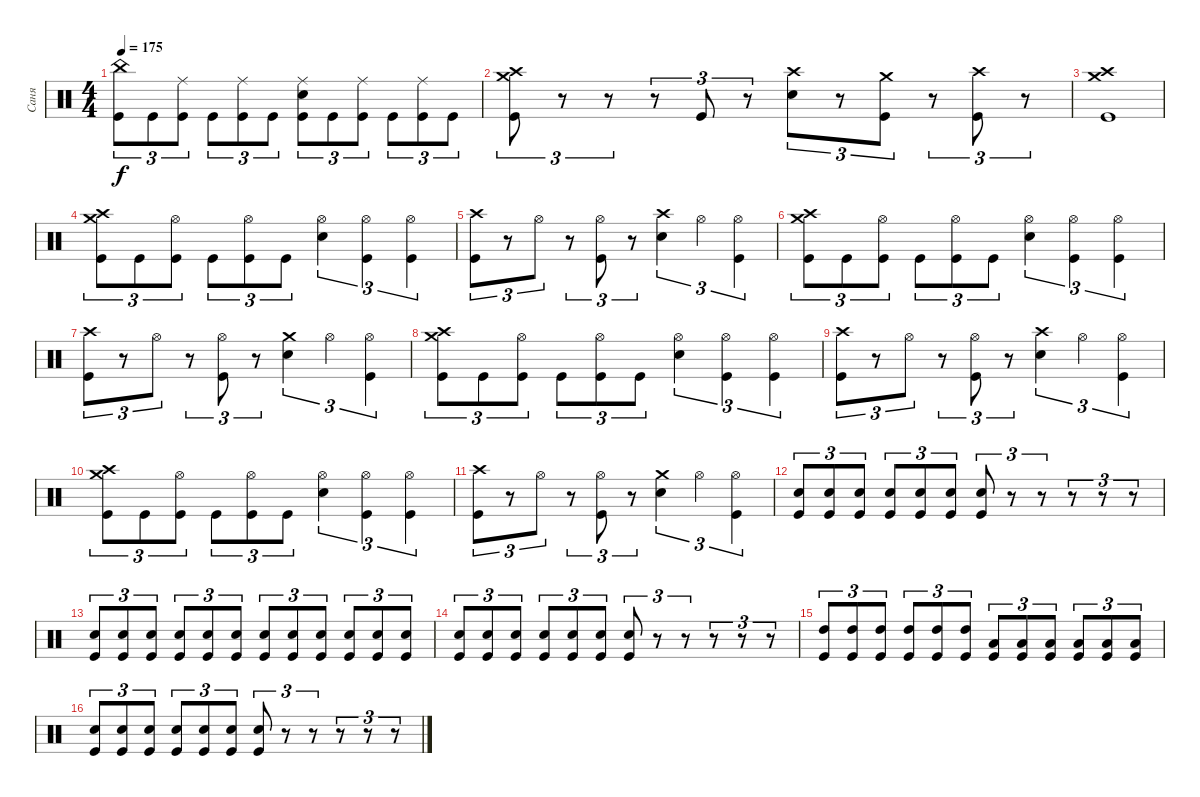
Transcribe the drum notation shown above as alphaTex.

\track ("Саня" "Саня") {instrument percussion}
\staff {score}
\articulation defaults
\ts (4 4)
\tempo 175
\clef neutral
\ks c
("China (hit)" "Kick (hit)").8{tu (3 2) dy f} "Kick (hit)".8{tu (3 2)} ("Ride (middle)" "Kick (hit)").8{tu (3 2)} "Kick (hit)".8{tu (3 2)} ("Ride (middle)" "Kick (hit)").8{tu (3 2)} "Kick (hit)".8{tu (3 2)} ("Ride (middle)" "Electric Snare (hit)" "Kick (hit)").8{tu (3 2)} "Kick (hit)".8{tu (3 2)} ("Ride (middle)" "Kick (hit)").8{tu (3 2)} "Kick (hit)".8{tu (3 2)} ("Ride (middle)" "Kick (hit)").8{tu (3 2)} "Kick (hit)".8{tu (3 2)} |
("Crash medium (hit)" "Crash high (hit)" "Kick (hit)").8{tu (3 2)} r.8{tu (3 2)} r.8{tu (3 2)} r.8{tu (3 2)} "Kick (hit)".8{tu (3 2)} r.8{tu (3 2)} ("Crash high (hit)" "Electric Snare (hit)").8{tu (3 2)} r.8{tu (3 2)} ("Crash medium (hit)" "Kick (hit)").8{tu (3 2)} r.8{tu (3 2)} ("Crash high (hit)" "Kick (hit)").8{tu (3 2)} r.8{tu (3 2)} |
("Crash high (hit)" "Crash medium (hit)" "Kick (hit)").1 |
("Crash medium (hit)" "Crash high (hit)" "Kick (hit)").8{tu (3 2)} "Kick (hit)".8{tu (3 2)} ("Hi-Hat (open)" "Kick (hit)").8{tu (3 2)} "Kick (hit)".8{tu (3 2)} ("Hi-Hat (open)" "Kick (hit)").8{tu (3 2)} "Kick (hit)".8{tu (3 2)} ("Hi-Hat (open)" "Electric Snare (hit)").4{tu (3 2)} ("Hi-Hat (open)" "Kick (hit)").4{tu (3 2)} ("Hi-Hat (open)" "Kick (hit)").4{tu (3 2)} |
("Crash high (hit)" "Kick (hit)").8{tu (3 2)} r.8{tu (3 2)} "Hi-Hat (open)".8{tu (3 2)} r.8{tu (3 2)} ("Hi-Hat (open)" "Kick (hit)").8{tu (3 2)} r.8{tu (3 2)} ("Crash high (hit)" "Electric Snare (hit)").4{tu (3 2)} "Hi-Hat (open)".4{tu (3 2)} ("Hi-Hat (open)" "Kick (hit)").4{tu (3 2)} |
("Crash medium (hit)" "Crash high (hit)" "Kick (hit)").8{tu (3 2)} "Kick (hit)".8{tu (3 2)} ("Hi-Hat (open)" "Kick (hit)").8{tu (3 2)} "Kick (hit)".8{tu (3 2)} ("Hi-Hat (open)" "Kick (hit)").8{tu (3 2)} "Kick (hit)".8{tu (3 2)} ("Hi-Hat (open)" "Electric Snare (hit)").4{tu (3 2)} ("Hi-Hat (open)" "Kick (hit)").4{tu (3 2)} ("Hi-Hat (open)" "Kick (hit)").4{tu (3 2)} |
("Crash high (hit)" "Kick (hit)").8{tu (3 2)} r.8{tu (3 2)} "Hi-Hat (open)".8{tu (3 2)} r.8{tu (3 2)} ("Hi-Hat (open)" "Kick (hit)").8{tu (3 2)} r.8{tu (3 2)} ("Crash medium (hit)" "Electric Snare (hit)").4{tu (3 2)} "Hi-Hat (open)".4{tu (3 2)} ("Hi-Hat (open)" "Kick (hit)").4{tu (3 2)} |
("Crash medium (hit)" "Crash high (hit)" "Kick (hit)").8{tu (3 2)} "Kick (hit)".8{tu (3 2)} ("Hi-Hat (open)" "Kick (hit)").8{tu (3 2)} "Kick (hit)".8{tu (3 2)} ("Hi-Hat (open)" "Kick (hit)").8{tu (3 2)} "Kick (hit)".8{tu (3 2)} ("Hi-Hat (open)" "Electric Snare (hit)").4{tu (3 2)} ("Hi-Hat (open)" "Kick (hit)").4{tu (3 2)} ("Hi-Hat (open)" "Kick (hit)").4{tu (3 2)} |
("Crash high (hit)" "Kick (hit)").8{tu (3 2)} r.8{tu (3 2)} "Hi-Hat (open)".8{tu (3 2)} r.8{tu (3 2)} ("Hi-Hat (open)" "Kick (hit)").8{tu (3 2)} r.8{tu (3 2)} ("Crash high (hit)" "Electric Snare (hit)").4{tu (3 2)} "Hi-Hat (open)".4{tu (3 2)} ("Hi-Hat (open)" "Kick (hit)").4{tu (3 2)} |
("Crash medium (hit)" "Crash high (hit)" "Kick (hit)").8{tu (3 2)} "Kick (hit)".8{tu (3 2)} ("Hi-Hat (open)" "Kick (hit)").8{tu (3 2)} "Kick (hit)".8{tu (3 2)} ("Hi-Hat (open)" "Kick (hit)").8{tu (3 2)} "Kick (hit)".8{tu (3 2)} ("Hi-Hat (open)" "Electric Snare (hit)").4{tu (3 2)} ("Hi-Hat (open)" "Kick (hit)").4{tu (3 2)} ("Hi-Hat (open)" "Kick (hit)").4{tu (3 2)} |
("Crash high (hit)" "Kick (hit)").8{tu (3 2)} r.8{tu (3 2)} "Hi-Hat (open)".8{tu (3 2)} r.8{tu (3 2)} ("Hi-Hat (open)" "Kick (hit)").8{tu (3 2)} r.8{tu (3 2)} ("Crash medium (hit)" "Electric Snare (hit)").4{tu (3 2)} "Hi-Hat (open)".4{tu (3 2)} ("Hi-Hat (open)" "Kick (hit)").4{tu (3 2)} |
("Electric Snare (hit)" "Kick (hit)").8{tu (3 2)} ("Electric Snare (hit)" "Kick (hit)").8{tu (3 2)} ("Electric Snare (hit)" "Kick (hit)").8{tu (3 2)} ("Electric Snare (hit)" "Kick (hit)").8{tu (3 2)} ("Electric Snare (hit)" "Kick (hit)").8{tu (3 2)} ("Electric Snare (hit)" "Kick (hit)").8{tu (3 2)} ("Electric Snare (hit)" "Kick (hit)").8{tu (3 2)} r.8{tu (3 2)} r.8{tu (3 2)} r.8{tu (3 2)} r.8{tu (3 2)} r.8{tu (3 2)} |
("Electric Snare (hit)" "Kick (hit)").8{tu (3 2)} ("Electric Snare (hit)" "Kick (hit)").8{tu (3 2)} ("Electric Snare (hit)" "Kick (hit)").8{tu (3 2)} ("Electric Snare (hit)" "Kick (hit)").8{tu (3 2)} ("Electric Snare (hit)" "Kick (hit)").8{tu (3 2)} ("Electric Snare (hit)" "Kick (hit)").8{tu (3 2)} ("Electric Snare (hit)" "Kick (hit)").8{tu (3 2)} ("Electric Snare (hit)" "Kick (hit)").8{tu (3 2)} ("Electric Snare (hit)" "Kick (hit)").8{tu (3 2)} ("Electric Snare (hit)" "Kick (hit)").8{tu (3 2)} ("Electric Snare (hit)" "Kick (hit)").8{tu (3 2)} ("Electric Snare (hit)" "Kick (hit)").8{tu (3 2)} |
("Electric Snare (hit)" "Kick (hit)").8{tu (3 2)} ("Electric Snare (hit)" "Kick (hit)").8{tu (3 2)} ("Electric Snare (hit)" "Kick (hit)").8{tu (3 2)} ("Electric Snare (hit)" "Kick (hit)").8{tu (3 2)} ("Electric Snare (hit)" "Kick (hit)").8{tu (3 2)} ("Electric Snare (hit)" "Kick (hit)").8{tu (3 2)} ("Electric Snare (hit)" "Kick (hit)").8{tu (3 2)} r.8{tu (3 2)} r.8{tu (3 2)} r.8{tu (3 2)} r.8{tu (3 2)} r.8{tu (3 2)} |
("High Tom (hit)" "Kick (hit)").8{tu (3 2)} ("High Tom (hit)" "Kick (hit)").8{tu (3 2)} ("High Tom (hit)" "Kick (hit)").8{tu (3 2)} ("High Tom (hit)" "Kick (hit)").8{tu (3 2)} ("High Tom (hit)" "Kick (hit)").8{tu (3 2)} ("High Tom (hit)" "Kick (hit)").8{tu (3 2)} ("Low Tom (hit)" "Kick (hit)").8{tu (3 2)} ("Low Tom (hit)" "Kick (hit)").8{tu (3 2)} ("Low Tom (hit)" "Kick (hit)").8{tu (3 2)} ("Low Tom (hit)" "Kick (hit)").8{tu (3 2)} ("Low Tom (hit)" "Kick (hit)").8{tu (3 2)} ("Low Tom (hit)" "Kick (hit)").8{tu (3 2)} |
("Electric Snare (hit)" "Kick (hit)").8{tu (3 2)} ("Electric Snare (hit)" "Kick (hit)").8{tu (3 2)} ("Electric Snare (hit)" "Kick (hit)").8{tu (3 2)} ("Electric Snare (hit)" "Kick (hit)").8{tu (3 2)} ("Electric Snare (hit)" "Kick (hit)").8{tu (3 2)} ("Electric Snare (hit)" "Kick (hit)").8{tu (3 2)} ("Electric Snare (hit)" "Kick (hit)").8{tu (3 2)} r.8{tu (3 2)} r.8{tu (3 2)} r.8{tu (3 2)} r.8{tu (3 2)} r.8{tu (3 2)}
